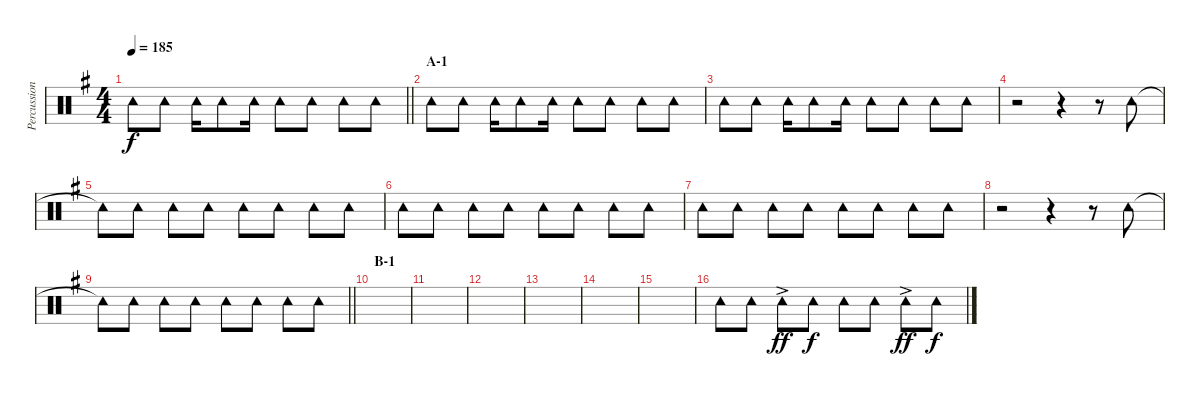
\track ("Percussion I" "Percussion") {instrument percussion}
\staff {score}
\articulation defaults
\ts (4 4)
\tempo 185
\clef neutral
\barLineRight lightlight
\ks g "Tambourine (hit)".8{dy f} "Tambourine (hit)".8 "Tambourine (hit)".16 "Tambourine (hit)".8 "Tambourine (hit)".16 "Tambourine (hit)".8 "Tambourine (hit)".8 "Tambourine (hit)".8 "Tambourine (hit)".8
|
\section ("" "A-1")
"Tambourine (hit)".8 "Tambourine (hit)".8 "Tambourine (hit)".16 "Tambourine (hit)".8 "Tambourine (hit)".16 "Tambourine (hit)".8 "Tambourine (hit)".8 "Tambourine (hit)".8 "Tambourine (hit)".8 |
"Tambourine (hit)".8 "Tambourine (hit)".8 "Tambourine (hit)".16 "Tambourine (hit)".8 "Tambourine (hit)".16 "Tambourine (hit)".8 "Tambourine (hit)".8 "Tambourine (hit)".8 "Tambourine (hit)".8 |
r.2 r.4 r.8 "Tambourine (hit)".8 |
"Tambourine (hit)"{t}.8 "Tambourine (hit)".8 "Tambourine (hit)".8 "Tambourine (hit)".8 "Tambourine (hit)".8 "Tambourine (hit)".8 "Tambourine (hit)".8 "Tambourine (hit)".8 |
"Tambourine (hit)".8 "Tambourine (hit)".8 "Tambourine (hit)".8 "Tambourine (hit)".8 "Tambourine (hit)".8 "Tambourine (hit)".8 "Tambourine (hit)".8 "Tambourine (hit)".8 |
"Tambourine (hit)".8 "Tambourine (hit)".8 "Tambourine (hit)".8 "Tambourine (hit)".8 "Tambourine (hit)".8 "Tambourine (hit)".8 "Tambourine (hit)".8 "Tambourine (hit)".8 |
r.2 r.4 r.8 "Tambourine (hit)".8 |
\barLineRight lightlight "Tambourine (hit)"{t}.8 "Tambourine (hit)".8 "Tambourine (hit)".8 "Tambourine (hit)".8 "Tambourine (hit)".8 "Tambourine (hit)".8 "Tambourine (hit)".8 "Tambourine (hit)".8
|
\section ("" "B-1")
|
|
|
|
|
|
"Tambourine (hit)".8 "Tambourine (hit)".8 "Tambourine (hit)"{ac}.8{dy ff} "Tambourine (hit)".8{dy f} "Tambourine (hit)".8 "Tambourine (hit)".8 "Tambourine (hit)"{ac}.8{dy ff} "Tambourine (hit)".8{dy f}
